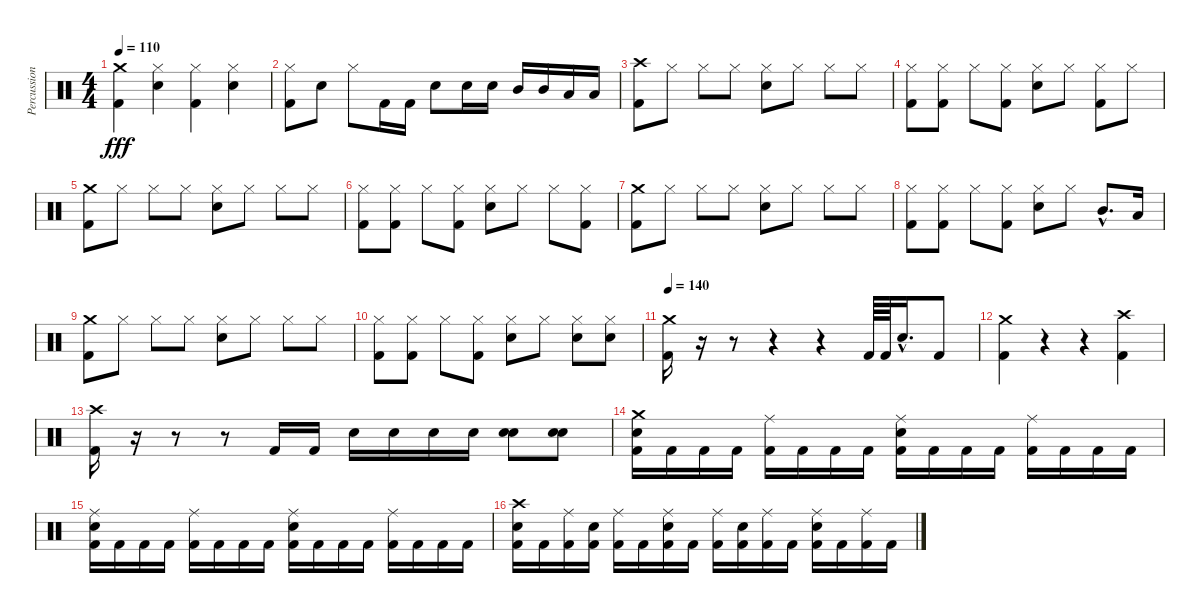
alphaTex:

\track ("Percussion" "Percussion") {instrument percussion}
\staff {score}
\articulation defaults
\ts (4 4)
\tempo 110
\clef neutral
\ks c
("Crash medium (hit)" "Kick (hit) 2").4{dy fff} ("Hi-Hat (closed)" "Snare (hit) 2").4 ("Hi-Hat (closed)" "Kick (hit) 2").4 ("Hi-Hat (closed)" "Snare (hit) 2").4 |
("Hi-Hat (closed)" "Kick (hit) 2").8 "Snare (hit) 2".8 "Hi-Hat (closed)".8 "Kick (hit) 2".16 "Kick (hit) 2".16 "Snare (hit) 2".8 "Snare (hit) 2".16 "Snare (hit) 2".16 "Mid Tom (hit)".16 "Mid Tom (hit)".16 "Low Tom (hit)".16 "Low Tom (hit)".16 |
("Crash high (hit)" "Kick (hit) 2").8 "Hi-Hat (closed)".8 "Hi-Hat (closed)".8 "Hi-Hat (closed)".8 ("Hi-Hat (closed)" "Snare (hit) 2").8 "Hi-Hat (closed)".8 "Hi-Hat (closed)".8 "Hi-Hat (closed)".8 |
("Hi-Hat (closed)" "Kick (hit) 2").8 ("Hi-Hat (closed)" "Kick (hit) 2").8 "Hi-Hat (closed)".8 ("Hi-Hat (closed)" "Kick (hit) 2").8 ("Hi-Hat (closed)" "Snare (hit) 2").8 "Hi-Hat (closed)".8 ("Hi-Hat (closed)" "Kick (hit) 2").8 "Hi-Hat (closed)".8 |
("Crash medium (hit)" "Kick (hit) 2").8 "Hi-Hat (closed)".8 "Hi-Hat (closed)".8 "Hi-Hat (closed)".8 ("Hi-Hat (closed)" "Snare (hit) 2").8 "Hi-Hat (closed)".8 "Hi-Hat (closed)".8 "Hi-Hat (closed)".8 |
("Hi-Hat (closed)" "Kick (hit) 2").8 ("Hi-Hat (closed)" "Kick (hit) 2").8 "Hi-Hat (closed)".8 ("Hi-Hat (closed)" "Kick (hit) 2").8 ("Hi-Hat (closed)" "Snare (hit) 2").8 "Hi-Hat (closed)".8 "Hi-Hat (closed)".8 ("Hi-Hat (closed)" "Kick (hit) 2").8 |
("Crash medium (hit)" "Kick (hit) 2").8 "Hi-Hat (closed)".8 "Hi-Hat (closed)".8 "Hi-Hat (closed)".8 ("Hi-Hat (closed)" "Snare (hit) 2").8 "Hi-Hat (closed)".8 "Hi-Hat (closed)".8 "Hi-Hat (closed)".8 |
("Hi-Hat (closed)" "Kick (hit) 2").8 ("Hi-Hat (closed)" "Kick (hit) 2").8 "Hi-Hat (closed)".8 ("Hi-Hat (closed)" "Kick (hit) 2").8 ("Hi-Hat (closed)" "Snare (hit) 2").8 "Hi-Hat (closed)".8 "Mid Tom (hit)"{hac}.8{d} "Low Tom (hit)".16 |
("Crash medium (hit)" "Kick (hit) 2").8 "Hi-Hat (closed)".8 "Hi-Hat (closed)".8 "Hi-Hat (closed)".8 ("Hi-Hat (closed)" "Snare (hit) 2").8 "Hi-Hat (closed)".8 "Hi-Hat (closed)".8 "Hi-Hat (closed)".8 |
("Hi-Hat (closed)" "Kick (hit) 2").8 ("Hi-Hat (closed)" "Kick (hit) 2").8 "Hi-Hat (closed)".8 ("Hi-Hat (closed)" "Kick (hit) 2").8 ("Hi-Hat (closed)" "Snare (hit) 2").8 "Hi-Hat (closed)".8 ("Hi-Hat (closed)" "Snare (hit) 2").8 ("Hi-Hat (closed)" "Snare (hit) 2").8 |
\tempo 140
("Crash medium (hit)" "Kick (hit) 2").16 r.16 r.8 r.4 r.4 "Kick (hit) 2".64 "Kick (hit) 2".64 "Snare (hit) 2"{hac}.16{d} "Kick (hit) 2".8 |
("Crash medium (hit)" "Kick (hit) 2").4 r.4 r.4 ("Crash high (hit)" "Kick (hit) 2").4 |
("Crash high (hit)" "Kick (hit) 2").16 r.16 r.8 r.8 "Kick (hit) 2".16 "Kick (hit) 2".16 "Snare (hit) 2".16 "Snare (hit) 2".16 "Snare (hit) 2".16 "Snare (hit) 2".16 ("Snare (hit) 2" "Snare (hit) 2").8 ("Snare (hit) 2" "Snare (hit) 2").8 |
("Crash medium (hit)" "Snare (hit) 2" "Kick (hit) 2").16 "Kick (hit) 2".16 "Kick (hit) 2".16 "Kick (hit) 2".16 ("Ride (middle)" "Kick (hit) 2").16 "Kick (hit) 2".16 "Kick (hit) 2".16 "Kick (hit) 2".16 ("Ride (middle)" "Snare (hit) 2" "Kick (hit) 2").16 "Kick (hit) 2".16 "Kick (hit) 2".16 "Kick (hit) 2".16 ("Ride (middle)" "Kick (hit) 2").16 "Kick (hit) 2".16 "Kick (hit) 2".16 "Kick (hit) 2".16 |
("Ride (middle)" "Snare (hit) 2" "Kick (hit) 2").16 "Kick (hit) 2".16 "Kick (hit) 2".16 "Kick (hit) 2".16 ("Ride (middle)" "Kick (hit) 2").16 "Kick (hit) 2".16 "Kick (hit) 2".16 "Kick (hit) 2".16 ("Ride (middle)" "Snare (hit) 2" "Kick (hit) 2").16 "Kick (hit) 2".16 "Kick (hit) 2".16 "Kick (hit) 2".16 ("Ride (middle)" "Kick (hit) 2").16 "Kick (hit) 2".16 "Kick (hit) 2".16 "Kick (hit) 2".16 |
("Crash high (hit)" "Snare (hit) 2" "Kick (hit) 2").16 "Kick (hit) 2".16 ("Ride (middle)" "Kick (hit) 2").16 ("Snare (hit) 2" "Kick (hit) 2").16 ("Ride (middle)" "Kick (hit) 2").16 "Kick (hit) 2".16 ("Ride (middle)" "Snare (hit) 2" "Kick (hit) 2").16 "Kick (hit) 2".16 ("Ride (middle)" "Kick (hit) 2").16 ("Snare (hit) 2" "Kick (hit) 2").16 ("Ride (middle)" "Kick (hit) 2").16 "Kick (hit) 2".16 ("Ride (middle)" "Snare (hit) 2" "Kick (hit) 2").16 "Kick (hit) 2".16 ("Ride (middle)" "Kick (hit) 2").16 "Kick (hit) 2".16
